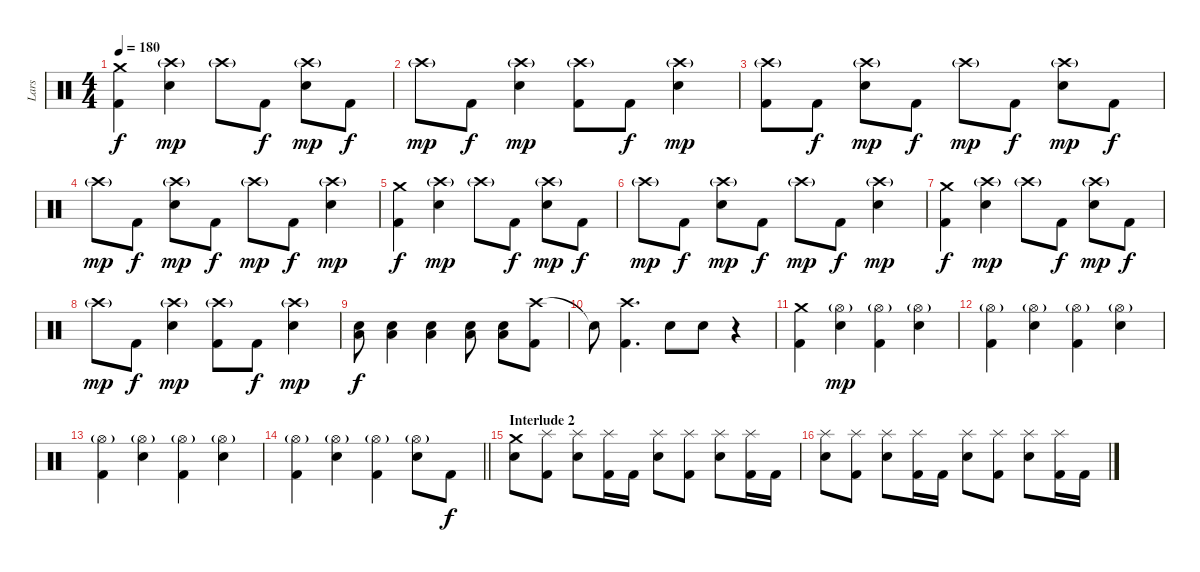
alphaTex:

\track ("Lars" "Lars") {instrument percussion}
\staff {score}
\articulation defaults
\ts (4 4)
\tempo 180
\clef neutral
\ks c
("Crash medium (hit)" "Kick (hit) 2").4{dy f} ("Crash high (hit)"{g} "Electric Snare (hit)").4{dy mp} "Crash high (hit)"{g}.8 "Kick (hit) 2".8{dy f} ("Crash high (hit)"{g} "Electric Snare (hit)").8{dy mp} "Kick (hit) 2".8{dy f} |
"Crash high (hit)"{g}.8{dy mp} "Kick (hit) 2".8{dy f} ("Crash high (hit)"{g} "Electric Snare (hit)").4{dy mp} ("Crash high (hit)"{g} "Kick (hit) 2").8 "Kick (hit) 2".8{dy f} ("Crash high (hit)"{g} "Electric Snare (hit)").4{dy mp} |
("Crash high (hit)"{g} "Kick (hit) 2").8 "Kick (hit) 2".8{dy f} ("Crash high (hit)"{g} "Electric Snare (hit)").8{dy mp} "Kick (hit) 2".8{dy f} "Crash high (hit)"{g}.8{dy mp} "Kick (hit) 2".8{dy f} ("Crash high (hit)"{g} "Electric Snare (hit)").8{dy mp} "Kick (hit) 2".8{dy f} |
"Crash high (hit)"{g}.8{dy mp} "Kick (hit) 2".8{dy f} ("Crash high (hit)"{g} "Electric Snare (hit)").8{dy mp} "Kick (hit) 2".8{dy f} "Crash high (hit)"{g}.8{dy mp} "Kick (hit) 2".8{dy f} ("Crash high (hit)"{g} "Electric Snare (hit)").4{dy mp} |
("Crash medium (hit)" "Kick (hit) 2").4{dy f} ("Crash high (hit)"{g} "Electric Snare (hit)").4{dy mp} "Crash high (hit)"{g}.8 "Kick (hit) 2".8{dy f} ("Crash high (hit)"{g} "Electric Snare (hit)").8{dy mp} "Kick (hit) 2".8{dy f} |
"Crash high (hit)"{g}.8{dy mp} "Kick (hit) 2".8{dy f} ("Crash high (hit)"{g} "Electric Snare (hit)").8{dy mp} "Kick (hit) 2".8{dy f} "Crash high (hit)"{g}.8{dy mp} "Kick (hit) 2".8{dy f} ("Crash high (hit)"{g} "Electric Snare (hit)").4{dy mp} |
("Crash medium (hit)" "Kick (hit) 2").4{dy f} ("Crash high (hit)"{g} "Electric Snare (hit)").4{dy mp} "Crash high (hit)"{g}.8 "Kick (hit) 2".8{dy f} ("Crash high (hit)"{g} "Electric Snare (hit)").8{dy mp} "Kick (hit) 2".8{dy f} |
"Crash high (hit)"{g}.8{dy mp} "Kick (hit) 2".8{dy f} ("Crash high (hit)"{g} "Electric Snare (hit)").4{dy mp} ("Crash high (hit)"{g} "Kick (hit) 2").8 "Kick (hit) 2".8{dy f} ("Crash high (hit)"{g} "Electric Snare (hit)").4{dy mp} |
("Low Floor Tom (hit)" "Electric Snare (hit)").8{dy f} ("Low Floor Tom (hit)" "Electric Snare (hit)").4 ("Low Floor Tom (hit)" "Electric Snare (hit)").4 ("Low Floor Tom (hit)" "Electric Snare (hit)").8 ("Low Floor Tom (hit)" "Electric Snare (hit)").8 ("Crash high (hit)" "Kick (hit) 2").8 |
"Snare (hit)"{t}.8 ("Crash high (hit)" "Kick (hit) 2").4{d} "Electric Snare (hit)".8 "Electric Snare (hit)".8 r.4 |
("Crash medium (hit)" "Kick (hit) 2").4 ("Hi-Hat (open)"{g} "Electric Snare (hit)").4{dy mp} ("Hi-Hat (open)"{g} "Kick (hit) 2").4 ("Hi-Hat (open)"{g} "Electric Snare (hit)").4 |
("Hi-Hat (open)"{g} "Kick (hit) 2").4 ("Hi-Hat (open)"{g} "Electric Snare (hit)").4 ("Hi-Hat (open)"{g} "Kick (hit) 2").4 ("Hi-Hat (open)"{g} "Electric Snare (hit)").4 |
("Hi-Hat (open)"{g} "Kick (hit) 2").4 ("Hi-Hat (open)"{g} "Electric Snare (hit)").4 ("Hi-Hat (open)"{g} "Kick (hit) 2").4 ("Hi-Hat (open)"{g} "Electric Snare (hit)").4 |
\barLineRight lightlight
("Hi-Hat (open)"{g} "Kick (hit) 2").4 ("Hi-Hat (open)"{g} "Electric Snare (hit)").4 ("Hi-Hat (open)"{g} "Kick (hit) 2").4 ("Hi-Hat (open)"{g} "Electric Snare (hit)").8 "Kick (hit) 2".8{dy f} |
\section ("" "Interlude 2")
("Crash medium (hit)" "Electric Snare (hit)").8 ("Splash (hit)" "Kick (hit) 2").8 ("Splash (hit)" "Electric Snare (hit)").8 ("Splash (hit)" "Kick (hit) 2").16 "Kick (hit) 2".16 ("Splash (hit)" "Electric Snare (hit)").8 ("Splash (hit)" "Kick (hit) 2").8 ("Splash (hit)" "Electric Snare (hit)").8 ("Splash (hit)" "Kick (hit) 2").16 "Kick (hit) 2".16 |
("Splash (hit)" "Electric Snare (hit)").8 ("Splash (hit)" "Kick (hit) 2").8 ("Splash (hit)" "Electric Snare (hit)").8 ("Splash (hit)" "Kick (hit) 2").16 "Kick (hit) 2".16 ("Splash (hit)" "Electric Snare (hit)").8 ("Splash (hit)" "Kick (hit) 2").8 ("Splash (hit)" "Electric Snare (hit)").8 ("Splash (hit)" "Kick (hit) 2").16 "Kick (hit) 2".16
